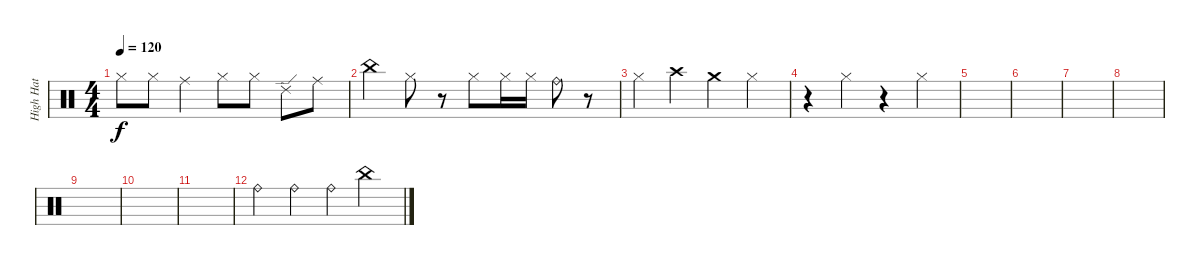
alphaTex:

\track ("High Hat" "High Hat") {instrument percussion}
\staff {score}
\articulation defaults
\ts (4 4)
\tempo 120
\clef neutral
\ks c "Hi-Hat (closed)".8{dy f} "Hi-Hat (closed)".8 "Ride (middle)".4 "Hi-Hat (closed)".8 "Hi-Hat (closed)".8 "Ride (edge) 2".8 "Ride (middle)".8
|
"China (hit)".4 "Hi-Hat (closed)".8 r.8 "Hi-Hat (closed)".8 "Hi-Hat (closed)".16 "Hi-Hat (closed)".16 "Ride (bell)".8 r.8 |
"Hi-Hat (closed)".4 "Crash high (hit)".4 "Crash medium (hit)".4 "Hi-Hat (closed)".4 |
r.4 "Hi-Hat (closed)".4 r.4 "Hi-Hat (closed)".4 |
|
|
|
|
|
|
|
"Ride (bell)".4 "Ride (bell)".4 "Ride (bell)".4 "China (hit)".4
